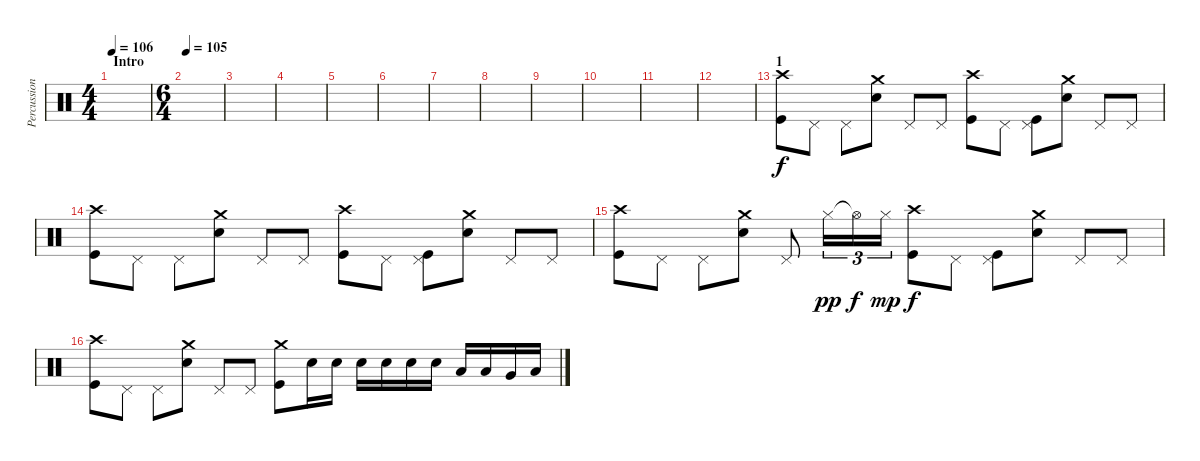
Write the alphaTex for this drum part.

\track ("Percussions" "Percussion") {instrument percussion}
\staff {score}
\articulation defaults
\ts (4 4)
\section ("" "Intro")
\tempo 106
\tempo 82
\tempo 106
\clef neutral
\ks c
|
\ts (6 4)
\tempo 105
|
|
|
|
|
|
|
|
|
|
|
\section ("" "1")
("Kick (hit)" "Crash high (hit)").8 "Pedal Hi-Hat (hit)".8 "Pedal Hi-Hat (hit)".8 ("Electric Snare (hit)" "Crash medium (hit)").8 "Pedal Hi-Hat (hit)".8 "Pedal Hi-Hat (hit)".8 ("Kick (hit)" "Crash high (hit)").8 "Pedal Hi-Hat (hit)".8 ("Kick (hit)" "Pedal Hi-Hat (hit)").8 ("Electric Snare (hit)" "Crash medium (hit)").8 "Pedal Hi-Hat (hit)".8 "Pedal Hi-Hat (hit)".8 |
("Kick (hit)" "Crash high (hit)").8 "Pedal Hi-Hat (hit)".8 "Pedal Hi-Hat (hit)".8 ("Electric Snare (hit)" "Crash medium (hit)").8 "Pedal Hi-Hat (hit)".8 "Pedal Hi-Hat (hit)".8 ("Kick (hit)" "Crash high (hit)").8 "Pedal Hi-Hat (hit)".8 ("Kick (hit)" "Pedal Hi-Hat (hit)").8 ("Electric Snare (hit)" "Crash medium (hit)").8 "Pedal Hi-Hat (hit)".8 "Pedal Hi-Hat (hit)".8 |
("Kick (hit)" "Crash high (hit)").8 "Pedal Hi-Hat (hit)".8 "Pedal Hi-Hat (hit)".8 ("Electric Snare (hit)" "Crash medium (hit)").8 "Pedal Hi-Hat (hit)".8 "Hi-Hat (closed)".16{tu (3 2) dy pp} "Hi-Hat (open)"{t}.16{tu (3 2) dy f} "Hi-Hat (closed)".16{tu (3 2) dy mp} ("Kick (hit)" "Crash high (hit)").8{dy f} "Pedal Hi-Hat (hit)".8 ("Kick (hit)" "Pedal Hi-Hat (hit)").8 ("Electric Snare (hit)" "Crash medium (hit)").8 "Pedal Hi-Hat (hit)".8 "Pedal Hi-Hat (hit)".8 |
("Kick (hit)" "Crash high (hit)").8 "Pedal Hi-Hat (hit)".8 "Pedal Hi-Hat (hit)".8 ("Electric Snare (hit)" "Crash medium (hit)").8 "Pedal Hi-Hat (hit)".8 "Pedal Hi-Hat (hit)".8 ("Kick (hit)" "Crash medium (hit)").8 "Snare (hit) 2".16 "Snare (hit) 2".16 "Snare (hit) 2".16 "Snare (hit) 2".16 "Snare (hit) 2".16 "Electric Snare (hit)".16 "Low Tom (hit)".16 "Low Tom (hit)".16 "Very Low Tom (hit)".16 "Low Floor Tom (hit)".16
